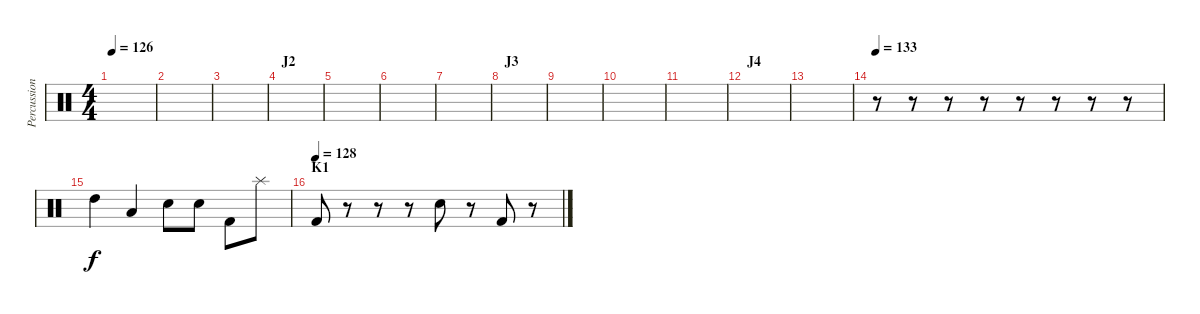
\track ("Percussion" "Percussion") {instrument percussion}
\staff {score}
\articulation defaults
\ts (4 4)
\tempo 126
\clef neutral
\ks c
|
|
|
\section ("" "J2")
|
|
|
|
\section ("" "J3")
|
|
|
|
\section ("" "J4")
|
|
\tempo 133
r.8 r.8 r.8 r.8 r.8 r.8 r.8 r.8 |
"High Tom (hit)".4 "Low Tom (hit)".4 "Electric Snare (hit)".8 "Electric Snare (hit)".8 "Kick (hit) 2".8 "Splash (hit)".8 |
\section ("" "K1")
\tempo (128)
"Kick (hit) 2".8 r.8 r.8 r.8 "Electric Snare (hit)".8 r.8 "Kick (hit) 2".8 r.8
